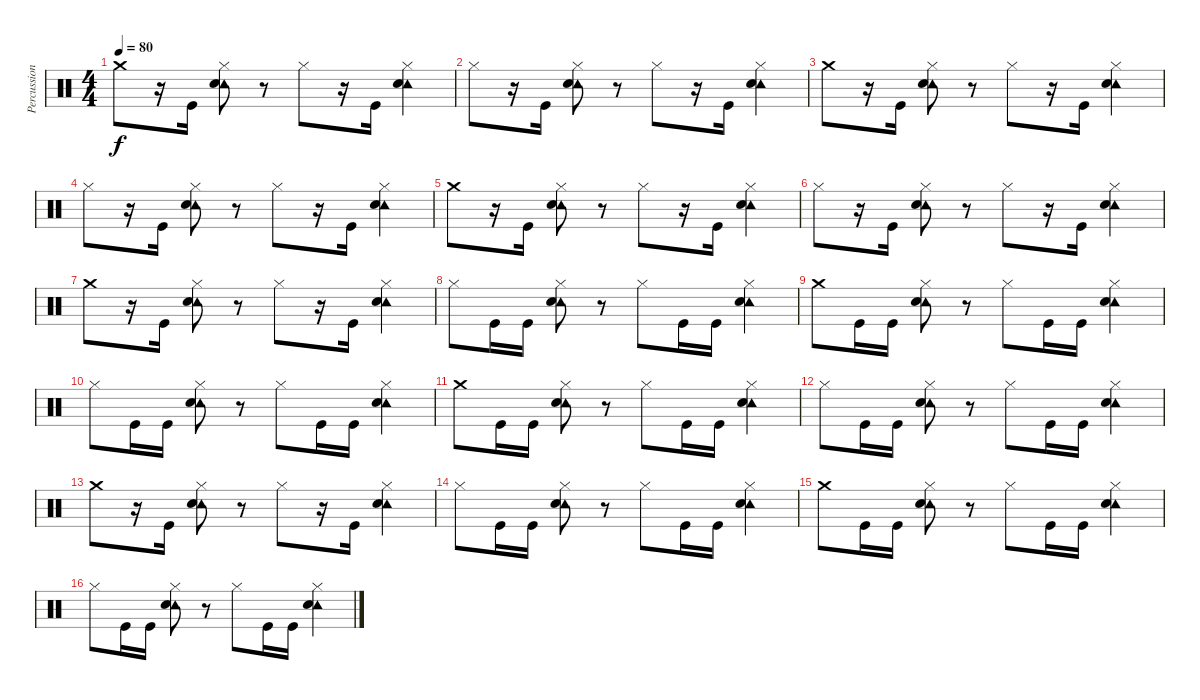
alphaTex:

\track ("Percussion" "Percussion") {instrument percussion}
\staff {score}
\articulation defaults
\ts (4 4)
\tempo 80
\clef neutral
\ks c "Crash medium (hit)".8{dy f}
r.16 "Kick (hit)".16 ("Hi-Hat (closed)" "Tambourine (hit)" "Electric Snare (hit)").8 r.8 "Hi-Hat (closed)".8 r.16 "Kick (hit)".16 ("Hi-Hat (closed)" "Tambourine (hit)" "Electric Snare (hit)").4 |
"Hi-Hat (closed)".8 r.16 "Kick (hit)".16 ("Hi-Hat (closed)" "Tambourine (hit)" "Electric Snare (hit)").8 r.8 "Hi-Hat (closed)".8 r.16 "Kick (hit)".16 ("Hi-Hat (closed)" "Tambourine (hit)" "Electric Snare (hit)").4 |
"Crash medium (hit)".8 r.16 "Kick (hit)".16 ("Hi-Hat (closed)" "Tambourine (hit)" "Electric Snare (hit)").8 r.8 "Hi-Hat (closed)".8 r.16 "Kick (hit)".16 ("Hi-Hat (closed)" "Tambourine (hit)" "Electric Snare (hit)").4 |
"Hi-Hat (closed)".8 r.16 "Kick (hit)".16 ("Hi-Hat (closed)" "Tambourine (hit)" "Electric Snare (hit)").8 r.8 "Hi-Hat (closed)".8 r.16 "Kick (hit)".16 ("Hi-Hat (closed)" "Tambourine (hit)" "Electric Snare (hit)").4 |
"Crash medium (hit)".8 r.16 "Kick (hit)".16 ("Hi-Hat (closed)" "Tambourine (hit)" "Electric Snare (hit)").8 r.8 "Hi-Hat (closed)".8 r.16 "Kick (hit)".16 ("Hi-Hat (closed)" "Tambourine (hit)" "Electric Snare (hit)").4 |
"Hi-Hat (closed)".8 r.16 "Kick (hit)".16 ("Hi-Hat (closed)" "Tambourine (hit)" "Electric Snare (hit)").8 r.8 "Hi-Hat (closed)".8 r.16 "Kick (hit)".16 ("Hi-Hat (closed)" "Tambourine (hit)" "Electric Snare (hit)").4 |
"Crash medium (hit)".8 r.16 "Kick (hit)".16 ("Hi-Hat (closed)" "Tambourine (hit)" "Electric Snare (hit)").8 r.8 "Hi-Hat (closed)".8 r.16 "Kick (hit)".16 ("Hi-Hat (closed)" "Tambourine (hit)" "Electric Snare (hit)").4 |
"Hi-Hat (closed)".8 "Kick (hit)".16 "Kick (hit)".16 ("Hi-Hat (closed)" "Tambourine (hit)" "Electric Snare (hit)").8 r.8 "Hi-Hat (closed)".8 "Kick (hit)".16 "Kick (hit)".16 ("Hi-Hat (closed)" "Tambourine (hit)" "Electric Snare (hit)").4 |
"Crash medium (hit)".8 "Kick (hit)".16 "Kick (hit)".16 ("Hi-Hat (closed)" "Tambourine (hit)" "Electric Snare (hit)").8 r.8 "Hi-Hat (closed)".8 "Kick (hit)".16 "Kick (hit)".16 ("Hi-Hat (closed)" "Tambourine (hit)" "Electric Snare (hit)").4 |
"Hi-Hat (closed)".8 "Kick (hit)".16 "Kick (hit)".16 ("Hi-Hat (closed)" "Tambourine (hit)" "Electric Snare (hit)").8 r.8 "Hi-Hat (closed)".8 "Kick (hit)".16 "Kick (hit)".16 ("Hi-Hat (closed)" "Tambourine (hit)" "Electric Snare (hit)").4 |
"Crash medium (hit)".8 "Kick (hit)".16 "Kick (hit)".16 ("Hi-Hat (closed)" "Tambourine (hit)" "Electric Snare (hit)").8 r.8 "Hi-Hat (closed)".8 "Kick (hit)".16 "Kick (hit)".16 ("Hi-Hat (closed)" "Tambourine (hit)" "Electric Snare (hit)").4 |
"Hi-Hat (closed)".8 "Kick (hit)".16 "Kick (hit)".16 ("Hi-Hat (closed)" "Tambourine (hit)" "Electric Snare (hit)").8 r.8 "Hi-Hat (closed)".8 "Kick (hit)".16 "Kick (hit)".16 ("Hi-Hat (closed)" "Tambourine (hit)" "Electric Snare (hit)").4 |
"Crash medium (hit)".8 r.16 "Kick (hit)".16 ("Hi-Hat (closed)" "Tambourine (hit)" "Electric Snare (hit)").8 r.8 "Hi-Hat (closed)".8 r.16 "Kick (hit)".16 ("Hi-Hat (closed)" "Tambourine (hit)" "Electric Snare (hit)").4 |
"Hi-Hat (closed)".8 "Kick (hit)".16 "Kick (hit)".16 ("Hi-Hat (closed)" "Tambourine (hit)" "Electric Snare (hit)").8 r.8 "Hi-Hat (closed)".8 "Kick (hit)".16 "Kick (hit)".16 ("Hi-Hat (closed)" "Tambourine (hit)" "Electric Snare (hit)").4 |
"Crash medium (hit)".8 "Kick (hit)".16 "Kick (hit)".16 ("Hi-Hat (closed)" "Tambourine (hit)" "Electric Snare (hit)").8 r.8 "Hi-Hat (closed)".8 "Kick (hit)".16 "Kick (hit)".16 ("Hi-Hat (closed)" "Tambourine (hit)" "Electric Snare (hit)").4 |
"Hi-Hat (closed)".8 "Kick (hit)".16 "Kick (hit)".16 ("Hi-Hat (closed)" "Tambourine (hit)" "Electric Snare (hit)").8 r.8 "Hi-Hat (closed)".8 "Kick (hit)".16 "Kick (hit)".16 ("Hi-Hat (closed)" "Tambourine (hit)" "Electric Snare (hit)").4
